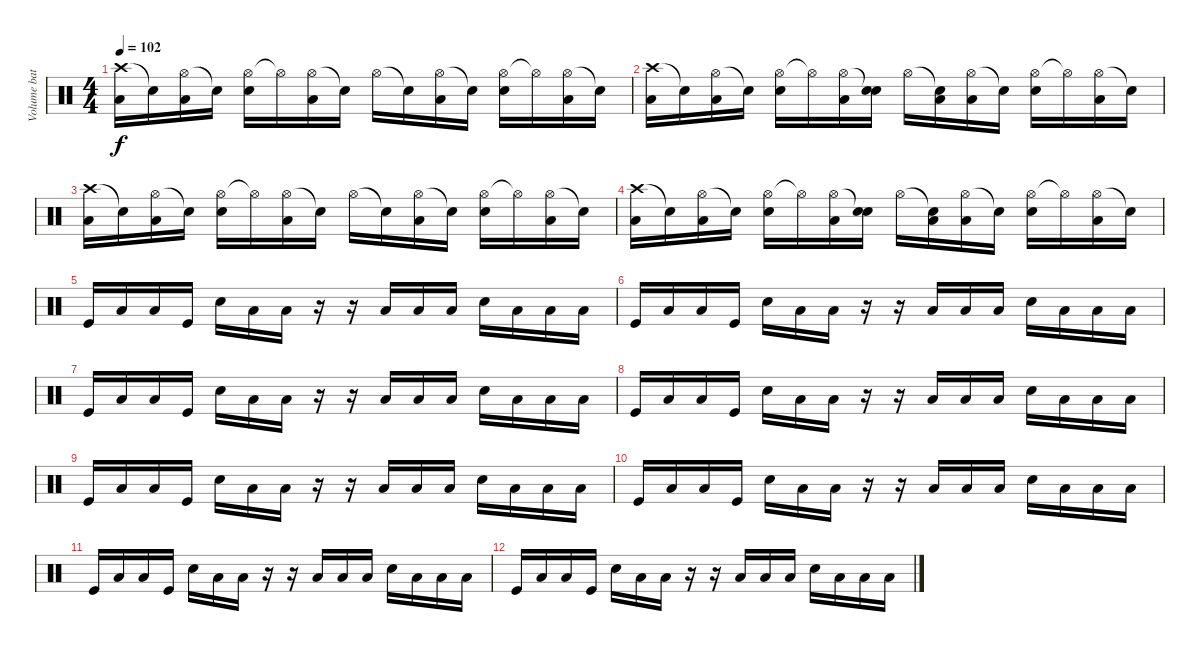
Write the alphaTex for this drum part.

\track ("Volume batera " "Volume bat") {instrument percussion}
\staff {score}
\articulation defaults
\ts (4 4)
\tempo 102
\clef neutral
\ks c
("Crash high (hit)" "Low Tom (hit)").16{dy f} "Snare (hit)"{t}.16 ("Hi-Hat (open)" "Low Tom (hit)").16 "Snare (hit)"{t}.16 ("Hi-Hat (open)" "Snare (hit) 2").16 "Hi-Hat (open)"{t}.16 ("Hi-Hat (open)" "Low Tom (hit)").16 "Snare (hit)"{t}.16 "Hi-Hat (open)".16 "Snare (hit)"{t}.16 ("Hi-Hat (open)" "Low Tom (hit)").16 "Snare (hit)"{t}.16 ("Hi-Hat (open)" "Snare (hit) 2").16 "Hi-Hat (open)"{t}.16 ("Hi-Hat (open)" "Low Tom (hit)").16 "Snare (hit)"{t}.16 |
("Crash high (hit)" "Low Tom (hit)").16 "Snare (hit)"{t}.16 ("Hi-Hat (open)" "Low Tom (hit)").16 "Snare (hit)"{t}.16 ("Hi-Hat (open)" "Snare (hit) 2").16 "Hi-Hat (open)"{t}.16 ("Hi-Hat (open)" "Low Tom (hit)").16 ("Snare (hit)"{t} "Snare (hit) 2").16 "Hi-Hat (open)".16 ("Snare (hit)"{t} "Low Tom (hit)").16 ("Hi-Hat (open)" "Low Tom (hit)").16 "Snare (hit)"{t}.16 ("Hi-Hat (open)" "Snare (hit) 2").16 "Hi-Hat (open)"{t}.16 ("Hi-Hat (open)" "Low Tom (hit)").16 "Snare (hit)"{t}.16 |
("Crash high (hit)" "Low Tom (hit)").16 "Snare (hit)"{t}.16 ("Hi-Hat (open)" "Low Tom (hit)").16 "Snare (hit)"{t}.16 ("Hi-Hat (open)" "Snare (hit) 2").16 "Hi-Hat (open)"{t}.16 ("Hi-Hat (open)" "Low Tom (hit)").16 "Snare (hit)"{t}.16 "Hi-Hat (open)".16 "Snare (hit)"{t}.16 ("Hi-Hat (open)" "Low Tom (hit)").16 "Snare (hit)"{t}.16 ("Hi-Hat (open)" "Snare (hit) 2").16 "Hi-Hat (open)"{t}.16 ("Hi-Hat (open)" "Low Tom (hit)").16 "Snare (hit)"{t}.16 |
("Crash high (hit)" "Low Tom (hit)").16 "Snare (hit)"{t}.16 ("Hi-Hat (open)" "Low Tom (hit)").16 "Snare (hit)"{t}.16 ("Hi-Hat (open)" "Snare (hit) 2").16 "Hi-Hat (open)"{t}.16 ("Hi-Hat (open)" "Low Tom (hit)").16 ("Snare (hit)"{t} "Snare (hit) 2").16 "Hi-Hat (open)".16 ("Snare (hit)"{t} "Low Tom (hit)").16 ("Hi-Hat (open)" "Low Tom (hit)").16 "Snare (hit)"{t}.16 ("Hi-Hat (open)" "Snare (hit) 2").16 "Hi-Hat (open)"{t}.16 ("Hi-Hat (open)" "Low Tom (hit)").16 "Snare (hit)"{t}.16 |
"Kick (hit)".16 "Low Tom (hit)".16 "Low Tom (hit)".16 "Kick (hit)".16 "Snare (hit) 2".16 "Low Tom (hit)".16 "Low Tom (hit)".16 r.16 r.16 "Low Tom (hit)".16 "Low Tom (hit)".16 "Low Tom (hit)".16 "Snare (hit) 2".16 "Low Tom (hit)".16 "Low Tom (hit)".16 "Low Tom (hit)".16 |
"Kick (hit)".16 "Low Tom (hit)".16 "Low Tom (hit)".16 "Kick (hit)".16 "Snare (hit) 2".16 "Low Tom (hit)".16 "Low Tom (hit)".16 r.16 r.16 "Low Tom (hit)".16 "Low Tom (hit)".16 "Low Tom (hit)".16 "Snare (hit) 2".16 "Low Tom (hit)".16 "Low Tom (hit)".16 "Low Tom (hit)".16 |
"Kick (hit)".16{volume 11} "Low Tom (hit)".16 "Low Tom (hit)".16 "Kick (hit)".16 "Snare (hit) 2".16 "Low Tom (hit)".16 "Low Tom (hit)".16 r.16 r.16 "Low Tom (hit)".16 "Low Tom (hit)".16 "Low Tom (hit)".16 "Snare (hit) 2".16 "Low Tom (hit)".16 "Low Tom (hit)".16 "Low Tom (hit)".16 |
"Kick (hit)".16 "Low Tom (hit)".16 "Low Tom (hit)".16 "Kick (hit)".16 "Snare (hit) 2".16 "Low Tom (hit)".16 "Low Tom (hit)".16 r.16 r.16 "Low Tom (hit)".16 "Low Tom (hit)".16 "Low Tom (hit)".16 "Snare (hit) 2".16 "Low Tom (hit)".16 "Low Tom (hit)".16 "Low Tom (hit)".16 |
"Kick (hit)".16{volume 8} "Low Tom (hit)".16 "Low Tom (hit)".16 "Kick (hit)".16 "Snare (hit) 2".16 "Low Tom (hit)".16 "Low Tom (hit)".16 r.16 r.16 "Low Tom (hit)".16 "Low Tom (hit)".16 "Low Tom (hit)".16 "Snare (hit) 2".16 "Low Tom (hit)".16 "Low Tom (hit)".16 "Low Tom (hit)".16 |
"Kick (hit)".16 "Low Tom (hit)".16 "Low Tom (hit)".16 "Kick (hit)".16 "Snare (hit) 2".16 "Low Tom (hit)".16 "Low Tom (hit)".16 r.16 r.16 "Low Tom (hit)".16 "Low Tom (hit)".16 "Low Tom (hit)".16 "Snare (hit) 2".16 "Low Tom (hit)".16 "Low Tom (hit)".16 "Low Tom (hit)".16 |
"Kick (hit)".16{volume 4} "Low Tom (hit)".16 "Low Tom (hit)".16 "Kick (hit)".16 "Snare (hit) 2".16 "Low Tom (hit)".16 "Low Tom (hit)".16 r.16 r.16 "Low Tom (hit)".16 "Low Tom (hit)".16 "Low Tom (hit)".16 "Snare (hit) 2".16 "Low Tom (hit)".16 "Low Tom (hit)".16 "Low Tom (hit)".16 |
"Kick (hit)".16 "Low Tom (hit)".16 "Low Tom (hit)".16 "Kick (hit)".16 "Snare (hit) 2".16 "Low Tom (hit)".16 "Low Tom (hit)".16 r.16 r.16 "Low Tom (hit)".16 "Low Tom (hit)".16 "Low Tom (hit)".16 "Snare (hit) 2".16 "Low Tom (hit)".16 "Low Tom (hit)".16 "Low Tom (hit)".16
